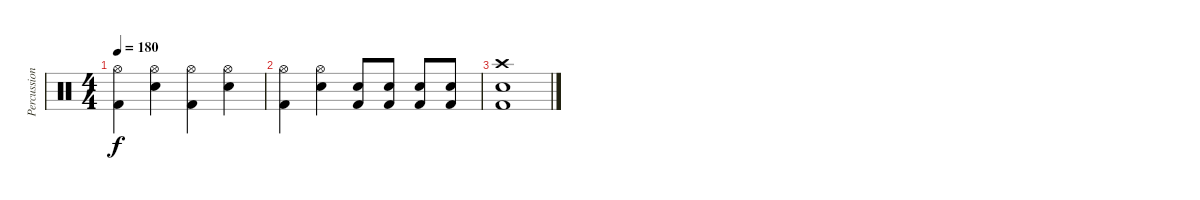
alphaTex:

\track ("Percussion" "Percussion") {instrument percussion}
\staff {score}
\articulation defaults
\ts (4 4)
\tempo 180
\clef neutral
\ks c
("Hi-Hat (open)" "Kick (hit) 2").4{dy f} ("Hi-Hat (open)" "Electric Snare (hit)").4 ("Hi-Hat (open)" "Kick (hit) 2").4 ("Hi-Hat (open)" "Electric Snare (hit)").4 |
("Hi-Hat (open)" "Kick (hit) 2").4 ("Hi-Hat (open)" "Electric Snare (hit)").4 ("Electric Snare (hit)" "Kick (hit) 2").8 ("Electric Snare (hit)" "Kick (hit) 2").8 ("Electric Snare (hit)" "Kick (hit) 2").8 ("Electric Snare (hit)" "Kick (hit) 2").8 |
("Crash high (hit)" "Electric Snare (hit)" "Kick (hit) 2").1
